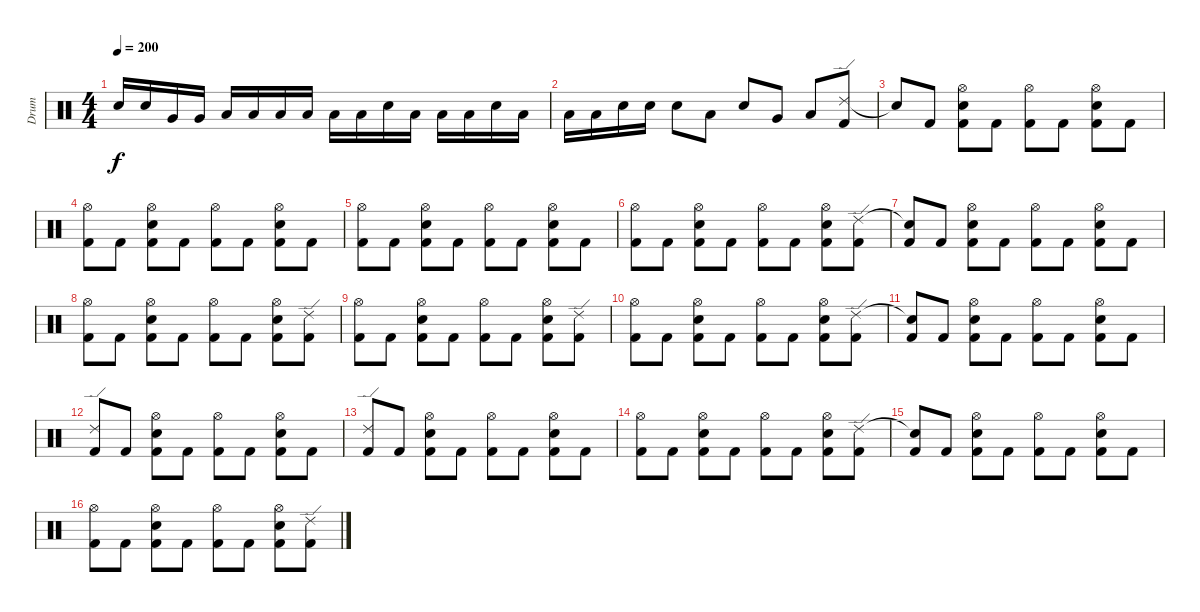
\track ("Drum" "Drum") {instrument percussion}
\staff {score}
\articulation defaults
\ts (4 4)
\tempo 200
\clef neutral
\ks c "Electric Snare (hit)".16{dy f} "Electric Snare (hit)".16 "Very Low Tom (hit)".16 "Very Low Tom (hit)".16 "Low Tom (hit)".16 "Low Tom (hit)".16 "Low Tom (hit)".16 "Low Tom (hit)".16 "Low Floor Tom (hit)".16 "Low Floor Tom (hit)".16 "Electric Snare (hit)".16 "Low Tom (hit)".16 "Low Floor Tom (hit)".16 "Low Floor Tom (hit)".16 "Electric Snare (hit)".16 "Low Tom (hit)".16
|
"Low Floor Tom (hit)".16 "Low Floor Tom (hit)".16 "Electric Snare (hit)".16 "Electric Snare (hit)".16 "Electric Snare (hit)".8 "Low Tom (hit)".8 "Electric Snare (hit)".8 "Very Low Tom (hit)".8 "Low Floor Tom (hit)".8 ("Ride (edge) 2" "Kick (hit) 2").8 |
"Snare (hit)"{t}.8 "Kick (hit) 2".8 ("Hi-Hat (open)" "Electric Snare (hit)" "Kick (hit) 2").8 "Kick (hit) 2".8 ("Hi-Hat (open)" "Kick (hit) 2").8 "Kick (hit) 2".8 ("Hi-Hat (open)" "Electric Snare (hit)" "Kick (hit) 2").8 "Kick (hit) 2".8 |
("Hi-Hat (open)" "Kick (hit) 2").8 "Kick (hit) 2".8 ("Hi-Hat (open)" "Electric Snare (hit)" "Kick (hit) 2").8 "Kick (hit) 2".8 ("Hi-Hat (open)" "Kick (hit) 2").8 "Kick (hit) 2".8 ("Hi-Hat (open)" "Electric Snare (hit)" "Kick (hit) 2").8 "Kick (hit) 2".8 |
("Hi-Hat (open)" "Kick (hit) 2").8 "Kick (hit) 2".8 ("Hi-Hat (open)" "Electric Snare (hit)" "Kick (hit) 2").8 "Kick (hit) 2".8 ("Hi-Hat (open)" "Kick (hit) 2").8 "Kick (hit) 2".8 ("Hi-Hat (open)" "Electric Snare (hit)" "Kick (hit) 2").8 "Kick (hit) 2".8 |
("Hi-Hat (open)" "Kick (hit) 2").8 "Kick (hit) 2".8 ("Hi-Hat (open)" "Electric Snare (hit)" "Kick (hit) 2").8 "Kick (hit) 2".8 ("Hi-Hat (open)" "Kick (hit) 2").8 "Kick (hit) 2".8 ("Hi-Hat (open)" "Electric Snare (hit)" "Kick (hit) 2").8 ("Ride (edge) 2" "Kick (hit) 2").8 |
("Snare (hit)"{t} "Kick (hit) 2").8 "Kick (hit) 2".8 ("Hi-Hat (open)" "Electric Snare (hit)" "Kick (hit) 2").8 "Kick (hit) 2".8 ("Hi-Hat (open)" "Kick (hit) 2").8 "Kick (hit) 2".8 ("Hi-Hat (open)" "Electric Snare (hit)" "Kick (hit) 2").8 "Kick (hit) 2".8 |
("Hi-Hat (open)" "Kick (hit) 2").8 "Kick (hit) 2".8 ("Hi-Hat (open)" "Electric Snare (hit)" "Kick (hit) 2").8 "Kick (hit) 2".8 ("Hi-Hat (open)" "Kick (hit) 2").8 "Kick (hit) 2".8 ("Hi-Hat (open)" "Electric Snare (hit)" "Kick (hit) 2").8 ("Ride (edge) 2" "Kick (hit) 2").8 |
("Hi-Hat (open)" "Kick (hit) 2").8 "Kick (hit) 2".8 ("Hi-Hat (open)" "Electric Snare (hit)" "Kick (hit) 2").8 "Kick (hit) 2".8 ("Hi-Hat (open)" "Kick (hit) 2").8 "Kick (hit) 2".8 ("Hi-Hat (open)" "Electric Snare (hit)" "Kick (hit) 2").8 ("Ride (edge) 2" "Kick (hit) 2").8 |
("Hi-Hat (open)" "Kick (hit) 2").8 "Kick (hit) 2".8 ("Hi-Hat (open)" "Electric Snare (hit)" "Kick (hit) 2").8 "Kick (hit) 2".8 ("Hi-Hat (open)" "Kick (hit) 2").8 "Kick (hit) 2".8 ("Hi-Hat (open)" "Electric Snare (hit)" "Kick (hit) 2").8 ("Ride (edge) 2" "Kick (hit) 2").8 |
("Snare (hit)"{t} "Kick (hit) 2").8 "Kick (hit) 2".8 ("Hi-Hat (open)" "Electric Snare (hit)" "Kick (hit) 2").8 "Kick (hit) 2".8 ("Hi-Hat (open)" "Kick (hit) 2").8 "Kick (hit) 2".8 ("Hi-Hat (open)" "Electric Snare (hit)" "Kick (hit) 2").8 "Kick (hit) 2".8 |
("Ride (edge) 2" "Kick (hit) 2").8 "Kick (hit) 2".8 ("Hi-Hat (open)" "Electric Snare (hit)" "Kick (hit) 2").8 "Kick (hit) 2".8 ("Hi-Hat (open)" "Kick (hit) 2").8 "Kick (hit) 2".8 ("Hi-Hat (open)" "Electric Snare (hit)" "Kick (hit) 2").8 "Kick (hit) 2".8 |
("Ride (edge) 2" "Kick (hit) 2").8 "Kick (hit) 2".8 ("Hi-Hat (open)" "Electric Snare (hit)" "Kick (hit) 2").8 "Kick (hit) 2".8 ("Hi-Hat (open)" "Kick (hit) 2").8 "Kick (hit) 2".8 ("Hi-Hat (open)" "Electric Snare (hit)" "Kick (hit) 2").8 "Kick (hit) 2".8 |
("Hi-Hat (open)" "Kick (hit) 2").8 "Kick (hit) 2".8 ("Hi-Hat (open)" "Electric Snare (hit)" "Kick (hit) 2").8 "Kick (hit) 2".8 ("Hi-Hat (open)" "Kick (hit) 2").8 "Kick (hit) 2".8 ("Hi-Hat (open)" "Electric Snare (hit)" "Kick (hit) 2").8 ("Ride (edge) 2" "Kick (hit) 2").8 |
("Snare (hit)"{t} "Kick (hit) 2").8 "Kick (hit) 2".8 ("Hi-Hat (open)" "Electric Snare (hit)" "Kick (hit) 2").8 "Kick (hit) 2".8 ("Hi-Hat (open)" "Kick (hit) 2").8 "Kick (hit) 2".8 ("Hi-Hat (open)" "Electric Snare (hit)" "Kick (hit) 2").8 "Kick (hit) 2".8 |
("Hi-Hat (open)" "Kick (hit) 2").8 "Kick (hit) 2".8 ("Hi-Hat (open)" "Electric Snare (hit)" "Kick (hit) 2").8 "Kick (hit) 2".8 ("Hi-Hat (open)" "Kick (hit) 2").8 "Kick (hit) 2".8 ("Hi-Hat (open)" "Electric Snare (hit)" "Kick (hit) 2").8 ("Ride (edge) 2" "Kick (hit) 2").8
